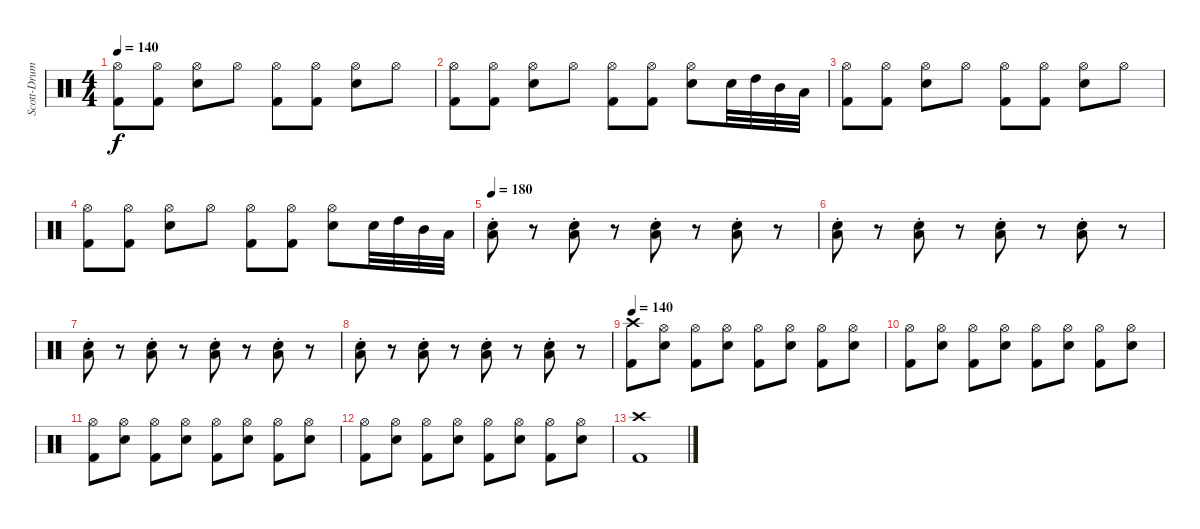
\track ("Scott-Drums" "Scott-Drum") {instrument percussion}
\staff {score}
\articulation defaults
\ts (4 4)
\tempo 140
\clef neutral
\ks c
("Kick (hit) 2" "Hi-Hat (open)").8{dy f} ("Kick (hit) 2" "Hi-Hat (open)").8 ("Snare (hit) 2" "Hi-Hat (open)").8 "Hi-Hat (open)".8 ("Kick (hit) 2" "Hi-Hat (open)").8 ("Kick (hit) 2" "Hi-Hat (open)").8 ("Snare (hit) 2" "Hi-Hat (open)").8 "Hi-Hat (open)".8 |
("Kick (hit) 2" "Hi-Hat (open)").8 ("Kick (hit) 2" "Hi-Hat (open)").8 ("Snare (hit) 2" "Hi-Hat (open)").8 "Hi-Hat (open)".8 ("Kick (hit) 2" "Hi-Hat (open)").8 ("Kick (hit) 2" "Hi-Hat (open)").8 ("Snare (hit) 2" "Hi-Hat (open)").8 "Snare (hit) 2".32 "High Tom (hit)".32 "Mid Tom (hit)".32 "Low Tom (hit)".32 |
("Kick (hit) 2" "Hi-Hat (open)").8 ("Kick (hit) 2" "Hi-Hat (open)").8 ("Snare (hit) 2" "Hi-Hat (open)").8 "Hi-Hat (open)".8 ("Kick (hit) 2" "Hi-Hat (open)").8 ("Kick (hit) 2" "Hi-Hat (open)").8 ("Snare (hit) 2" "Hi-Hat (open)").8 "Hi-Hat (open)".8 |
("Kick (hit) 2" "Hi-Hat (open)").8 ("Kick (hit) 2" "Hi-Hat (open)").8 ("Snare (hit) 2" "Hi-Hat (open)").8 "Hi-Hat (open)".8 ("Kick (hit) 2" "Hi-Hat (open)").8 ("Kick (hit) 2" "Hi-Hat (open)").8 ("Snare (hit) 2" "Hi-Hat (open)").8 "Snare (hit) 2".32 "High Tom (hit)".32 "Mid Tom (hit)".32 "Low Tom (hit)".32 |
\tempo 180
("Snare (hit) 2"{st} "Low Tom (hit)").8 r.8 ("Snare (hit) 2"{st} "Low Tom (hit)").8 r.8 ("Snare (hit) 2"{st} "Low Tom (hit)").8 r.8 ("Snare (hit) 2"{st} "Low Tom (hit)").8 r.8 |
("Snare (hit) 2"{st} "Low Tom (hit)").8 r.8 ("Snare (hit) 2"{st} "Low Tom (hit)").8 r.8 ("Snare (hit) 2"{st} "Low Tom (hit)").8 r.8 ("Snare (hit) 2"{st} "Low Tom (hit)").8 r.8 |
("Snare (hit) 2"{st} "Low Tom (hit)").8 r.8 ("Snare (hit) 2"{st} "Low Tom (hit)").8 r.8 ("Snare (hit) 2"{st} "Low Tom (hit)").8 r.8 ("Snare (hit) 2"{st} "Low Tom (hit)").8 r.8 |
("Snare (hit) 2"{st} "Low Tom (hit)").8 r.8 ("Snare (hit) 2"{st} "Low Tom (hit)").8 r.8 ("Snare (hit) 2"{st} "Low Tom (hit)").8 r.8 ("Snare (hit) 2"{st} "Low Tom (hit)").8 r.8 |
\tempo 140
("Kick (hit) 2" "Crash high (hit)").8 ("Snare (hit) 2" "Hi-Hat (open)").8 ("Kick (hit) 2" "Hi-Hat (open)").8 ("Snare (hit) 2" "Hi-Hat (open)").8 ("Kick (hit) 2" "Hi-Hat (open)").8 ("Snare (hit) 2" "Hi-Hat (open)").8 ("Kick (hit) 2" "Hi-Hat (open)").8 ("Snare (hit) 2" "Hi-Hat (open)").8 |
("Kick (hit) 2" "Hi-Hat (open)").8 ("Snare (hit) 2" "Hi-Hat (open)").8 ("Kick (hit) 2" "Hi-Hat (open)").8 ("Snare (hit) 2" "Hi-Hat (open)").8 ("Kick (hit) 2" "Hi-Hat (open)").8 ("Snare (hit) 2" "Hi-Hat (open)").8 ("Kick (hit) 2" "Hi-Hat (open)").8 ("Snare (hit) 2" "Hi-Hat (open)").8 |
("Kick (hit) 2" "Hi-Hat (open)").8 ("Snare (hit) 2" "Hi-Hat (open)").8 ("Kick (hit) 2" "Hi-Hat (open)").8 ("Snare (hit) 2" "Hi-Hat (open)").8 ("Kick (hit) 2" "Hi-Hat (open)").8 ("Snare (hit) 2" "Hi-Hat (open)").8 ("Kick (hit) 2" "Hi-Hat (open)").8 ("Snare (hit) 2" "Hi-Hat (open)").8 |
("Kick (hit) 2" "Hi-Hat (open)").8 ("Snare (hit) 2" "Hi-Hat (open)").8 ("Kick (hit) 2" "Hi-Hat (open)").8 ("Snare (hit) 2" "Hi-Hat (open)").8 ("Kick (hit) 2" "Hi-Hat (open)").8 ("Snare (hit) 2" "Hi-Hat (open)").8 ("Kick (hit) 2" "Hi-Hat (open)").8 ("Snare (hit) 2" "Hi-Hat (open)").8 |
("Crash high (hit)" "Kick (hit) 2").1
